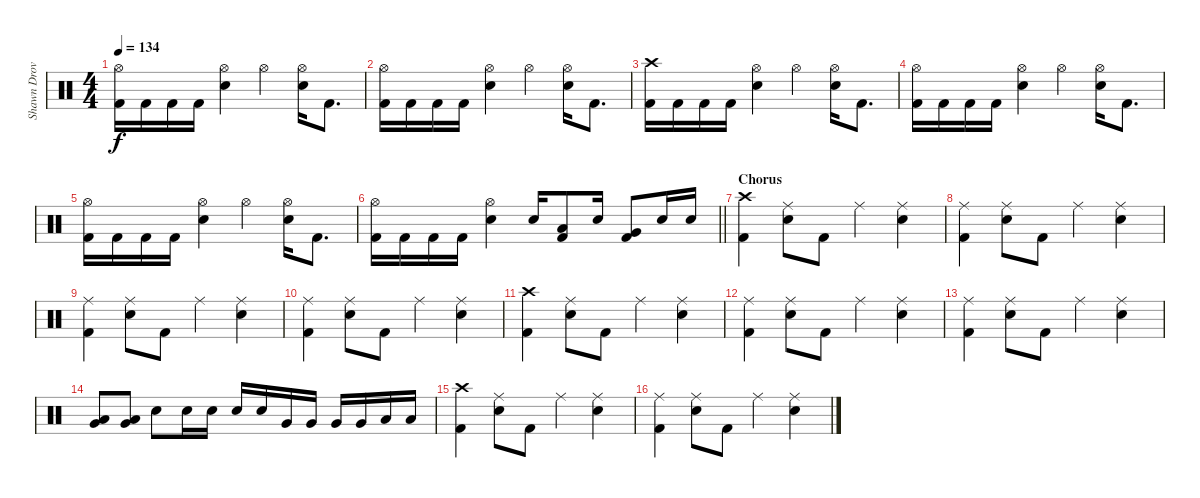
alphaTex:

\track ("Shawn Drover" "Shawn Drov") {instrument percussion}
\staff {score}
\articulation defaults
\ts (4 4)
\tempo 134
\clef neutral
\ks c
("Hi-Hat (open)" "Kick (hit) 2").16{dy f} "Kick (hit) 2".16 "Kick (hit) 2".16 "Kick (hit) 2".16 ("Hi-Hat (open)" "Snare (hit) 2").4 "Hi-Hat (open)".4 ("Hi-Hat (open)" "Snare (hit) 2").16 "Kick (hit) 2".8{d} |
("Hi-Hat (open)" "Kick (hit) 2").16 "Kick (hit) 2".16 "Kick (hit) 2".16 "Kick (hit) 2".16 ("Hi-Hat (open)" "Snare (hit) 2").4 "Hi-Hat (open)".4 ("Hi-Hat (open)" "Snare (hit) 2").16 "Kick (hit) 2".8{d} |
("Crash high (hit)" "Kick (hit) 2").16 "Kick (hit) 2".16 "Kick (hit) 2".16 "Kick (hit) 2".16 ("Hi-Hat (open)" "Snare (hit) 2").4 "Hi-Hat (open)".4 ("Hi-Hat (open)" "Snare (hit) 2").16 "Kick (hit) 2".8{d} |
("Hi-Hat (open)" "Kick (hit) 2").16 "Kick (hit) 2".16 "Kick (hit) 2".16 "Kick (hit) 2".16 ("Hi-Hat (open)" "Snare (hit) 2").4 "Hi-Hat (open)".4 ("Hi-Hat (open)" "Snare (hit) 2").16 "Kick (hit) 2".8{d} |
("Hi-Hat (open)" "Kick (hit) 2").16 "Kick (hit) 2".16 "Kick (hit) 2".16 "Kick (hit) 2".16 ("Hi-Hat (open)" "Snare (hit) 2").4 "Hi-Hat (open)".4 ("Hi-Hat (open)" "Snare (hit) 2").16 "Kick (hit) 2".8{d} |
\barLineRight lightlight
("Hi-Hat (open)" "Kick (hit) 2").16 "Kick (hit) 2".16 "Kick (hit) 2".16 "Kick (hit) 2".16 ("Hi-Hat (open)" "Snare (hit) 2").4 "Snare (hit) 2".16 ("Low Floor Tom (hit)" "Kick (hit) 2").8 "Snare (hit) 2".16 ("Very Low Tom (hit)" "Kick (hit) 2").8 "Snare (hit) 2".16 "Snare (hit) 2".16 |
\section ("" "Chorus")
("Crash high (hit)" "Kick (hit) 2").4 ("Ride (middle)" "Snare (hit) 2").8 "Kick (hit) 2".8 "Ride (middle)".4 ("Ride (middle)" "Snare (hit) 2").4 |
("Ride (middle)" "Kick (hit) 2").4 ("Ride (middle)" "Snare (hit) 2").8 "Kick (hit) 2".8 "Ride (middle)".4 ("Ride (middle)" "Snare (hit) 2").4 |
("Ride (middle)" "Kick (hit) 2").4 ("Ride (middle)" "Snare (hit) 2").8 "Kick (hit) 2".8 "Ride (middle)".4 ("Ride (middle)" "Snare (hit) 2").4 |
("Ride (middle)" "Kick (hit) 2").4 ("Ride (middle)" "Snare (hit) 2").8 "Kick (hit) 2".8 "Ride (middle)".4 ("Ride (middle)" "Snare (hit) 2").4 |
("Crash high (hit)" "Kick (hit) 2").4 ("Ride (middle)" "Snare (hit) 2").8 "Kick (hit) 2".8 "Ride (middle)".4 ("Ride (middle)" "Snare (hit) 2").4 |
("Ride (middle)" "Kick (hit) 2").4 ("Ride (middle)" "Snare (hit) 2").8 "Kick (hit) 2".8 "Ride (middle)".4 ("Ride (middle)" "Snare (hit) 2").4 |
("Ride (middle)" "Kick (hit) 2").4 ("Ride (middle)" "Snare (hit) 2").8 "Kick (hit) 2".8 "Ride (middle)".4 ("Ride (middle)" "Snare (hit) 2").4 |
("Low Tom (hit)" "Very Low Tom (hit)").8 ("Low Tom (hit)" "Very Low Tom (hit)").8 "Snare (hit) 2".8 "Snare (hit) 2".16 "Snare (hit) 2".16 "Snare (hit) 2".16 "Snare (hit) 2".16 "Very Low Tom (hit)".16 "Very Low Tom (hit)".16 "Very Low Tom (hit)".16 "Very Low Tom (hit)".16 "Low Floor Tom (hit)".16 "Low Floor Tom (hit)".16 |
("Crash high (hit)" "Kick (hit) 2").4 ("Ride (middle)" "Snare (hit) 2").8 "Kick (hit) 2".8 "Ride (middle)".4 ("Ride (middle)" "Snare (hit) 2").4 |
("Ride (middle)" "Kick (hit) 2").4 ("Ride (middle)" "Snare (hit) 2").8 "Kick (hit) 2".8 "Ride (middle)".4 ("Ride (middle)" "Snare (hit) 2").4
